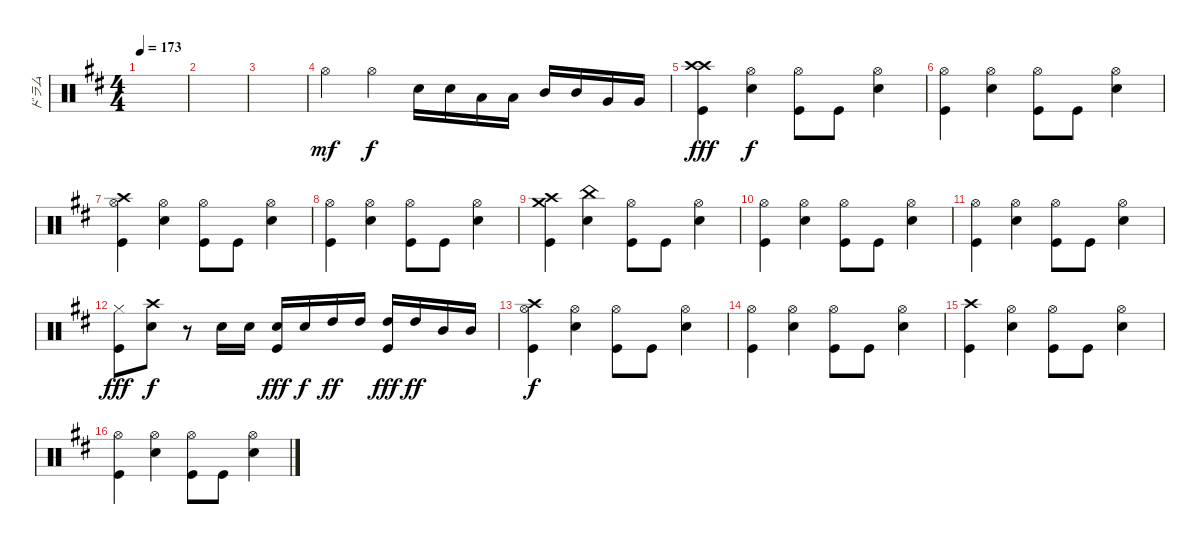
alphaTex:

\track ("ドラム" "ドラム") {mute instrument percussion}
\staff {score}
\articulation defaults
\ts (4 4)
\tempo 173
\clef neutral
\ks d
|
|
|
"Hi-Hat (open)".4{dy mf volume 15} "Hi-Hat (open)".4{dy f} "Snare (hit) 2".16 "Snare (hit) 2".16 "Low Tom (hit)".16 "Low Tom (hit)".16 "Mid Tom (hit)".16 "Mid Tom (hit)".16 "Very Low Tom (hit)".16 "Very Low Tom (hit)".16 |
("Crash high (hit)" "Crash high (hit)" "Kick (hit)").4{dy fff volume 14} ("Hi-Hat (open)" "Snare (hit) 2").4{dy f} ("Hi-Hat (open)" "Kick (hit)").8 "Kick (hit)".8 ("Hi-Hat (open)" "Snare (hit) 2").4 |
("Hi-Hat (open)" "Kick (hit)").4 ("Hi-Hat (open)" "Snare (hit) 2").4 ("Hi-Hat (open)" "Kick (hit)").8 "Kick (hit)".8 ("Hi-Hat (open)" "Snare (hit) 2").4 |
("Crash high (hit)" "Hi-Hat (open)" "Kick (hit)").4 ("Hi-Hat (open)" "Snare (hit) 2").4 ("Hi-Hat (open)" "Kick (hit)").8 "Kick (hit)".8 ("Hi-Hat (open)" "Snare (hit) 2").4 |
("Hi-Hat (open)" "Kick (hit)").4 ("Hi-Hat (open)" "Snare (hit) 2").4 ("Hi-Hat (open)" "Kick (hit)").8 "Kick (hit)".8 ("Hi-Hat (open)" "Snare (hit) 2").4 |
("Crash high (hit)" "Crash medium (hit)" "Kick (hit)").4 ("China (hit)" "Snare (hit) 2").4 ("Hi-Hat (open)" "Kick (hit)").8 "Kick (hit)".8 ("Hi-Hat (open)" "Snare (hit) 2").4 |
("Hi-Hat (open)" "Kick (hit)").4 ("Hi-Hat (open)" "Snare (hit) 2").4 ("Hi-Hat (open)" "Kick (hit)").8 "Kick (hit)".8 ("Hi-Hat (open)" "Snare (hit) 2").4 |
("Hi-Hat (open)" "Kick (hit)").4 ("Hi-Hat (open)" "Snare (hit) 2").4 ("Hi-Hat (open)" "Kick (hit)").8 "Kick (hit)".8 ("Hi-Hat (open)" "Snare (hit) 2").4 |
("Hi-Hat (closed)" "Kick (hit)").8{dy fff} ("Crash high (hit)" "Snare (hit) 2").8{dy f} r.8 "Snare (hit) 2".16 "Snare (hit) 2".16 ("Snare (hit) 2" "Kick (hit)").16{dy fff} "Snare (hit) 2".16{dy f} "High Tom (hit)".16{dy ff} "High Tom (hit)".16 ("High Tom (hit)" "Kick (hit)").16{dy fff} "High Tom (hit)".16{dy ff} "Mid Tom (hit)".16 "Mid Tom (hit)".16 |
("Crash high (hit)" "Hi-Hat (open)" "Kick (hit)").4{dy f} ("Hi-Hat (open)" "Snare (hit) 2").4 ("Hi-Hat (open)" "Kick (hit)").8 "Kick (hit)".8 ("Hi-Hat (open)" "Snare (hit) 2").4 |
("Hi-Hat (open)" "Kick (hit)").4 ("Hi-Hat (open)" "Snare (hit) 2").4 ("Hi-Hat (open)" "Kick (hit)").8 "Kick (hit)".8 ("Hi-Hat (open)" "Snare (hit) 2").4 |
("Crash high (hit)" "Kick (hit)").4 ("Hi-Hat (open)" "Snare (hit) 2").4 ("Hi-Hat (open)" "Kick (hit)").8 "Kick (hit)".8 ("Hi-Hat (open)" "Snare (hit) 2").4 |
("Hi-Hat (open)" "Kick (hit)").4 ("Hi-Hat (open)" "Snare (hit) 2").4 ("Hi-Hat (open)" "Kick (hit)").8 "Kick (hit)".8 ("Hi-Hat (open)" "Snare (hit) 2").4
